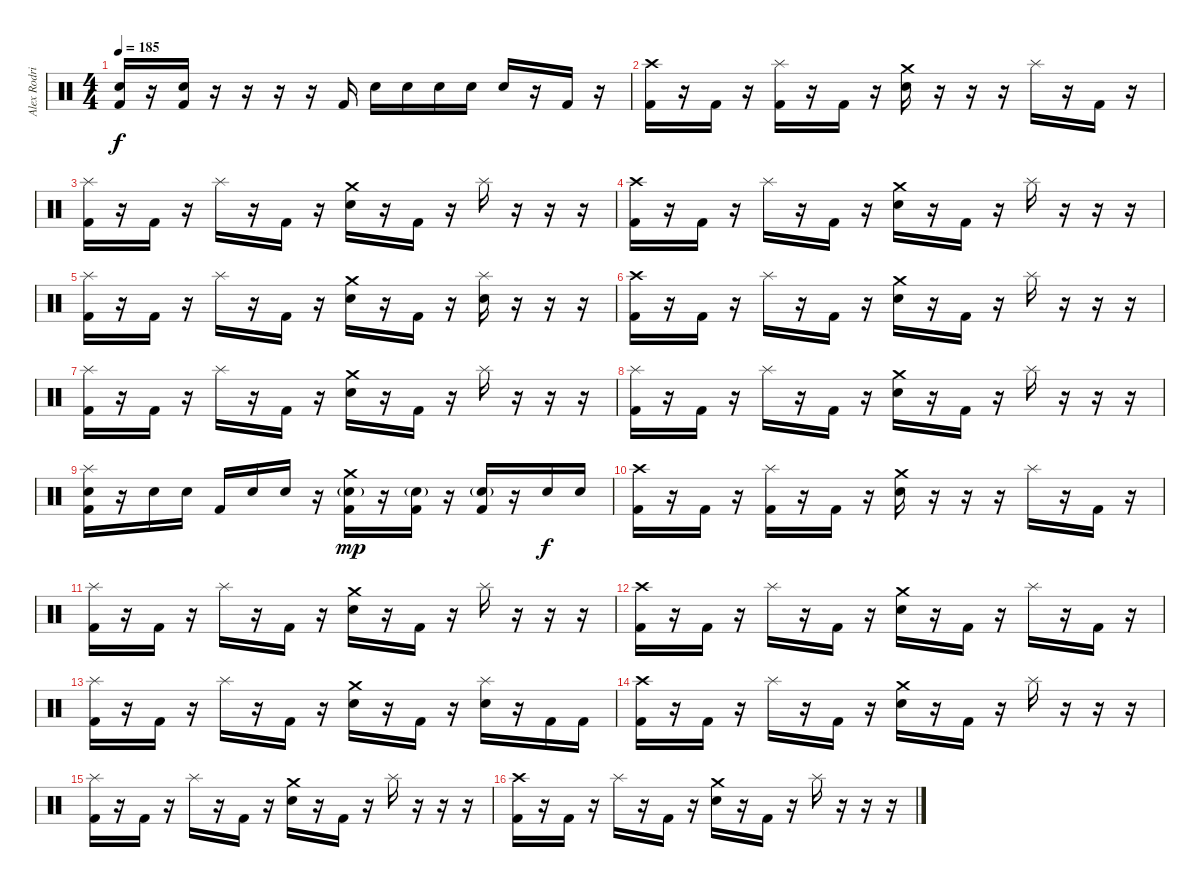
\track ("Alex Rodriguez" "Alex Rodri") {instrument percussion}
\staff {score}
\articulation defaults
\ts (4 4)
\tempo 185
\clef neutral
\ks c
("Electric Snare (hit)" "Kick (hit) 2").16{dy f} r.16 ("Electric Snare (hit)" "Kick (hit) 2").16 r.16 r.16 r.16 r.16 "Kick (hit) 2".16 "Electric Snare (hit)".16 "Electric Snare (hit)".16 "Electric Snare (hit)".16 "Electric Snare (hit)".16 "Electric Snare (hit)".16 r.16 "Kick (hit) 2".16 r.16 |
("Crash high (hit)" "Kick (hit) 2").16 r.16 "Kick (hit) 2".16 r.16 ("Splash (hit)" "Kick (hit) 2").16 r.16 "Kick (hit) 2".16 r.16 ("Crash medium (hit)" "Electric Snare (hit)").16 r.16 r.16 r.16 "Splash (hit)".16 r.16 "Kick (hit) 2".16 r.16 |
("Splash (hit)" "Kick (hit) 2").16 r.16 "Kick (hit) 2".16 r.16 "Splash (hit)".16 r.16 "Kick (hit) 2".16 r.16 ("Crash medium (hit)" "Electric Snare (hit)").16 r.16 "Kick (hit) 2".16 r.16 "Splash (hit)".16 r.16 r.16 r.16 |
("Crash high (hit)" "Kick (hit) 2").16 r.16 "Kick (hit) 2".16 r.16 "Splash (hit)".16 r.16 "Kick (hit) 2".16 r.16 ("Crash medium (hit)" "Electric Snare (hit)").16 r.16 "Kick (hit) 2".16 r.16 "Splash (hit)".16 r.16 r.16 r.16 |
("Splash (hit)" "Kick (hit) 2").16 r.16 "Kick (hit) 2".16 r.16 "Splash (hit)".16 r.16 "Kick (hit) 2".16 r.16 ("Crash medium (hit)" "Electric Snare (hit)").16 r.16 "Kick (hit) 2".16 r.16 ("Splash (hit)" "Electric Snare (hit)").16 r.16 r.16 r.16 |
("Crash high (hit)" "Kick (hit) 2").16 r.16 "Kick (hit) 2".16 r.16 "Splash (hit)".16 r.16 "Kick (hit) 2".16 r.16 ("Crash medium (hit)" "Electric Snare (hit)").16 r.16 "Kick (hit) 2".16 r.16 "Splash (hit)".16 r.16 r.16 r.16 |
("Splash (hit)" "Kick (hit) 2").16 r.16 "Kick (hit) 2".16 r.16 "Splash (hit)".16 r.16 "Kick (hit) 2".16 r.16 ("Crash medium (hit)" "Electric Snare (hit)").16 r.16 "Kick (hit) 2".16 r.16 "Splash (hit)".16 r.16 r.16 r.16 |
("Splash (hit)" "Kick (hit) 2").16 r.16 "Kick (hit) 2".16 r.16 "Splash (hit)".16 r.16 "Kick (hit) 2".16 r.16 ("Crash medium (hit)" "Electric Snare (hit)").16 r.16 "Kick (hit) 2".16 r.16 "Splash (hit)".16 r.16 r.16 r.16 |
("Splash (hit)" "Electric Snare (hit)" "Kick (hit) 2").16 r.16 "Electric Snare (hit)".16 "Electric Snare (hit)".16 "Kick (hit) 2".16 "Electric Snare (hit)".16 "Electric Snare (hit)".16 r.16 ("Crash medium (hit)" "Electric Snare (hit)"{g} "Kick (hit) 2").16{dy mp} r.16 ("Electric Snare (hit)"{g} "Kick (hit) 2").16 r.16 ("Electric Snare (hit)"{g} "Kick (hit) 2").16 r.16 "Electric Snare (hit)".16{dy f} "Electric Snare (hit)".16 |
("Crash high (hit)" "Kick (hit) 2").16 r.16 "Kick (hit) 2".16 r.16 ("Splash (hit)" "Kick (hit) 2").16 r.16 "Kick (hit) 2".16 r.16 ("Crash medium (hit)" "Electric Snare (hit)").16 r.16 r.16 r.16 "Splash (hit)".16 r.16 "Kick (hit) 2".16 r.16 |
("Splash (hit)" "Kick (hit) 2").16 r.16 "Kick (hit) 2".16 r.16 "Splash (hit)".16 r.16 "Kick (hit) 2".16 r.16 ("Crash medium (hit)" "Electric Snare (hit)").16 r.16 "Kick (hit) 2".16 r.16 "Splash (hit)".16 r.16 r.16 r.16 |
("Crash high (hit)" "Kick (hit) 2").16 r.16 "Kick (hit) 2".16 r.16 "Splash (hit)".16 r.16 "Kick (hit) 2".16 r.16 ("Crash medium (hit)" "Electric Snare (hit)").16 r.16 "Kick (hit) 2".16 r.16 "Splash (hit)".16 r.16 "Kick (hit) 2".16 r.16 |
("Splash (hit)" "Kick (hit) 2").16 r.16 "Kick (hit) 2".16 r.16 "Splash (hit)".16 r.16 "Kick (hit) 2".16 r.16 ("Crash medium (hit)" "Electric Snare (hit)").16 r.16 "Kick (hit) 2".16 r.16 ("Splash (hit)" "Electric Snare (hit)").16 r.16 "Kick (hit) 2".16 "Kick (hit) 2".16 |
("Crash high (hit)" "Kick (hit) 2").16 r.16 "Kick (hit) 2".16 r.16 "Splash (hit)".16 r.16 "Kick (hit) 2".16 r.16 ("Crash medium (hit)" "Electric Snare (hit)").16 r.16 "Kick (hit) 2".16 r.16 "Splash (hit)".16 r.16 r.16 r.16 |
("Splash (hit)" "Kick (hit) 2").16 r.16 "Kick (hit) 2".16 r.16 "Splash (hit)".16 r.16 "Kick (hit) 2".16 r.16 ("Crash medium (hit)" "Electric Snare (hit)").16 r.16 "Kick (hit) 2".16 r.16 "Splash (hit)".16 r.16 r.16 r.16 |
("Crash high (hit)" "Kick (hit) 2").16 r.16 "Kick (hit) 2".16 r.16 "Splash (hit)".16 r.16 "Kick (hit) 2".16 r.16 ("Crash medium (hit)" "Electric Snare (hit)").16 r.16 "Kick (hit) 2".16 r.16 "Splash (hit)".16 r.16 r.16 r.16
